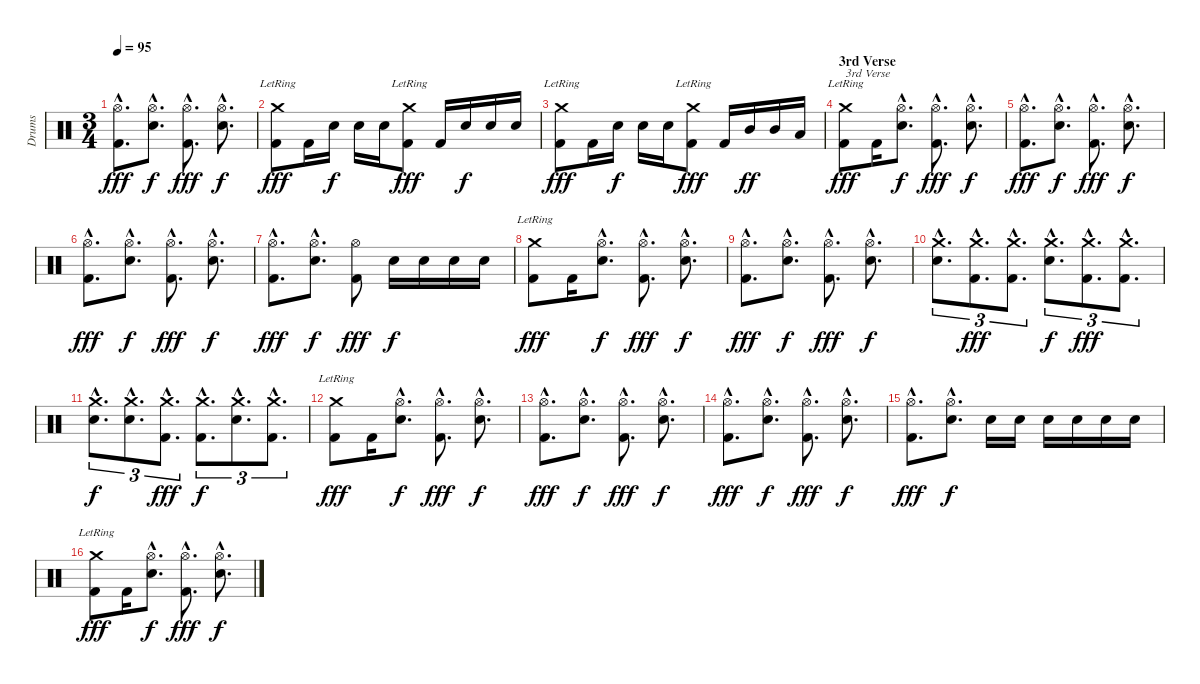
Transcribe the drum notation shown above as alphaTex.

\track ("Drums" "Drums") {instrument percussion}
\staff {score}
\articulation defaults
\ts (3 4)
\tempo 95
\clef neutral
\ks c
("Hi-Hat (open)"{hac} "Kick (hit) 2"{hac}).8{d dy fff} ("Hi-Hat (open)"{hac} "Snare (hit) 2"{hac}).8{d dy f} ("Hi-Hat (open)"{hac} "Kick (hit) 2"{hac}).8{d dy fff} ("Hi-Hat (open)"{hac} "Snare (hit) 2"{hac}).8{d dy f} |
("Crash medium (hit)"{lr} "Kick (hit) 2").8{dy fff} "Kick (hit) 2".16 "Snare (hit) 2".16{dy f} "Snare (hit) 2".16 "Snare (hit) 2".16 ("Crash medium (hit)"{lr} "Kick (hit) 2").8{dy fff} "Kick (hit) 2".16 "Snare (hit) 2".16{dy f} "Snare (hit) 2".16 "Snare (hit) 2".16 |
("Crash medium (hit)"{lr} "Kick (hit) 2").8{dy fff} "Kick (hit) 2".16 "Snare (hit) 2".16{dy f} "Snare (hit) 2".16 "Snare (hit) 2".16 ("Crash medium (hit)"{lr} "Kick (hit) 2").8{dy fff} "Kick (hit) 2".16 "Mid Tom (hit)".16{dy ff} "Mid Tom (hit)".16 "Low Tom (hit)".16 |
\section ("" "3rd Verse")
("Crash medium (hit)"{lr} "Kick (hit) 2").8{txt "3rd Verse" dy fff} "Kick (hit) 2".16 ("Hi-Hat (open)"{hac} "Snare (hit) 2"{hac}).8{d dy f} ("Hi-Hat (open)"{hac} "Kick (hit) 2"{hac}).8{d dy fff} ("Hi-Hat (open)"{hac} "Snare (hit) 2"{hac}).8{d dy f} |
("Hi-Hat (open)"{hac} "Kick (hit) 2"{hac}).8{d dy fff} ("Hi-Hat (open)"{hac} "Snare (hit) 2"{hac}).8{d dy f} ("Hi-Hat (open)"{hac} "Kick (hit) 2"{hac}).8{d dy fff} ("Hi-Hat (open)"{hac} "Snare (hit) 2"{hac}).8{d dy f} |
("Hi-Hat (open)"{hac} "Kick (hit) 2"{hac}).8{d dy fff} ("Hi-Hat (open)"{hac} "Snare (hit) 2"{hac}).8{d dy f} ("Hi-Hat (open)"{hac} "Kick (hit) 2"{hac}).8{d dy fff} ("Hi-Hat (open)"{hac} "Snare (hit) 2"{hac}).8{d dy f} |
("Hi-Hat (open)"{hac} "Kick (hit) 2"{hac}).8{d dy fff} ("Hi-Hat (open)"{hac} "Snare (hit) 2"{hac}).8{d dy f} ("Hi-Hat (open)" "Kick (hit) 2").8{dy fff} "Snare (hit) 2".16{dy f} "Snare (hit) 2".16 "Snare (hit) 2".16 "Snare (hit) 2".16 |
("Crash medium (hit)"{lr} "Kick (hit) 2").8{dy fff} "Kick (hit) 2".16 ("Hi-Hat (open)"{hac} "Snare (hit) 2"{hac}).8{d dy f} ("Hi-Hat (open)"{hac} "Kick (hit) 2"{hac}).8{d dy fff} ("Hi-Hat (open)"{hac} "Snare (hit) 2"{hac}).8{d dy f} |
("Hi-Hat (open)"{hac} "Kick (hit) 2"{hac}).8{d dy fff} ("Hi-Hat (open)"{hac} "Snare (hit) 2"{hac}).8{d dy f} ("Hi-Hat (open)"{hac} "Kick (hit) 2"{hac}).8{d dy fff} ("Hi-Hat (open)"{hac} "Snare (hit) 2"{hac}).8{d dy f} |
("Crash medium (hit)"{hac} "Snare (hit) 2"{hac}).8{d tu (3 2)} ("Crash medium (hit)"{hac} "Kick (hit) 2"{hac}).8{d tu (3 2) dy fff} ("Crash medium (hit)"{hac} "Kick (hit) 2"{hac}).8{d tu (3 2)} ("Crash medium (hit)"{hac} "Snare (hit) 2"{hac}).8{d tu (3 2) dy f} ("Crash medium (hit)"{hac} "Kick (hit) 2"{hac}).8{d tu (3 2) dy fff} ("Crash medium (hit)"{hac} "Kick (hit) 2"{hac}).8{d tu (3 2)} |
("Crash medium (hit)"{hac} "Snare (hit) 2"{hac}).8{d tu (3 2) dy f} ("Crash medium (hit)"{hac} "Snare (hit) 2"{hac}).8{d tu (3 2)} ("Crash medium (hit)"{hac} "Kick (hit) 2"{hac}).8{d tu (3 2) dy fff} ("Crash medium (hit)"{hac} "Kick (hit) 2"{hac}).8{d tu (3 2) dy f} ("Crash medium (hit)"{hac} "Snare (hit) 2"{hac}).8{d tu (3 2)} ("Crash medium (hit)"{hac} "Kick (hit) 2"{hac}).8{d tu (3 2)} |
("Crash medium (hit)"{lr} "Kick (hit) 2").8{dy fff} "Kick (hit) 2".16 ("Hi-Hat (open)"{hac} "Snare (hit) 2"{hac}).8{d dy f} ("Hi-Hat (open)"{hac} "Kick (hit) 2"{hac}).8{d dy fff} ("Hi-Hat (open)"{hac} "Snare (hit) 2"{hac}).8{d dy f} |
("Hi-Hat (open)"{hac} "Kick (hit) 2"{hac}).8{d dy fff} ("Hi-Hat (open)"{hac} "Snare (hit) 2"{hac}).8{d dy f} ("Hi-Hat (open)"{hac} "Kick (hit) 2"{hac}).8{d dy fff} ("Hi-Hat (open)"{hac} "Snare (hit) 2"{hac}).8{d dy f} |
("Hi-Hat (open)"{hac} "Kick (hit) 2"{hac}).8{d dy fff} ("Hi-Hat (open)"{hac} "Snare (hit) 2"{hac}).8{d dy f} ("Hi-Hat (open)"{hac} "Kick (hit) 2"{hac}).8{d dy fff} ("Hi-Hat (open)"{hac} "Snare (hit) 2"{hac}).8{d dy f} |
("Hi-Hat (open)"{hac} "Kick (hit) 2"{hac}).8{d dy fff} ("Hi-Hat (open)"{hac} "Snare (hit) 2"{hac}).8{d dy f} "Snare (hit) 2".16 "Snare (hit) 2".16 "Snare (hit) 2".16 "Snare (hit) 2".16 "Snare (hit) 2".16 "Snare (hit) 2".16 |
("Crash medium (hit)"{lr} "Kick (hit) 2").8{dy fff} "Kick (hit) 2".16 ("Hi-Hat (open)"{hac} "Snare (hit) 2"{hac}).8{d dy f} ("Hi-Hat (open)"{hac} "Kick (hit) 2"{hac}).8{d dy fff} ("Hi-Hat (open)"{hac} "Snare (hit) 2"{hac}).8{d dy f}
